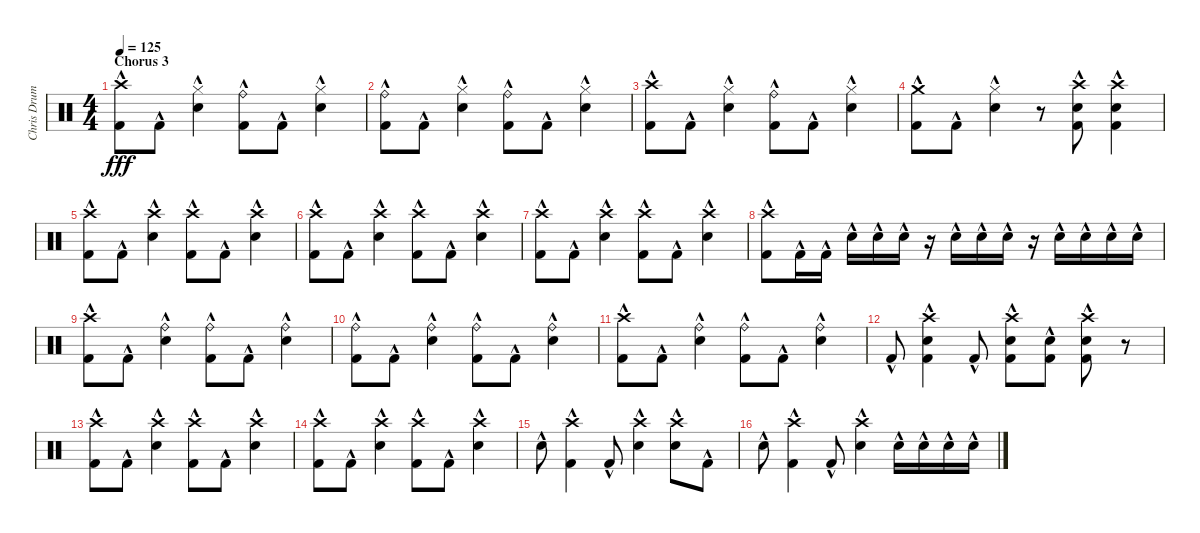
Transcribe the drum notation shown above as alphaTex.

\track ("Chris Drums" "Chris Drum") {instrument percussion}
\staff {score}
\articulation defaults
\ts (4 4)
\section ("" "Chorus 3")
\tempo 125
\clef neutral
\ks c
("Crash high (hit)"{hac} "Kick (hit) 2"{hac}).8{dy fff} "Kick (hit) 2"{hac}.8 ("Hi-Hat (closed)"{hac} "Snare (hit) 2"{hac}).4 ("Ride (bell)"{hac} "Kick (hit) 2"{hac}).8 "Kick (hit) 2"{hac}.8 ("Hi-Hat (closed)"{hac} "Snare (hit) 2"{hac}).4 |
("Ride (bell)"{hac} "Kick (hit) 2"{hac}).8 "Kick (hit) 2"{hac}.8 ("Hi-Hat (closed)"{hac} "Snare (hit) 2"{hac}).4 ("Ride (bell)"{hac} "Kick (hit) 2"{hac}).8 "Kick (hit) 2"{hac}.8 ("Hi-Hat (closed)"{hac} "Snare (hit) 2"{hac}).4 |
("Crash high (hit)"{hac} "Kick (hit) 2"{hac}).8 "Kick (hit) 2"{hac}.8 ("Hi-Hat (closed)"{hac} "Snare (hit) 2"{hac}).4 ("Ride (bell)"{hac} "Kick (hit) 2"{hac}).8 "Kick (hit) 2"{hac}.8 ("Hi-Hat (closed)"{hac} "Snare (hit) 2"{hac}).4 |
("Crash medium (hit)"{hac} "Kick (hit) 2"{hac}).8 "Kick (hit) 2"{hac}.8 ("Hi-Hat (closed)"{hac} "Snare (hit) 2"{hac}).4 r.8 ("Crash high (hit)" "Snare (hit) 2"{hac} "Kick (hit) 2"{hac}).8 ("Crash high (hit)" "Snare (hit) 2"{hac} "Kick (hit) 2"{hac}).4 |
("Crash high (hit)"{hac} "Kick (hit) 2"{hac}).8 "Kick (hit) 2"{hac}.8 ("Crash high (hit)"{hac} "Snare (hit) 2"{hac}).4 ("Crash high (hit)"{hac} "Kick (hit) 2"{hac}).8 "Kick (hit) 2"{hac}.8 ("Crash high (hit)"{hac} "Snare (hit) 2"{hac}).4 |
("Crash high (hit)"{hac} "Kick (hit) 2"{hac}).8 "Kick (hit) 2"{hac}.8 ("Crash high (hit)"{hac} "Snare (hit) 2"{hac}).4 ("Crash high (hit)"{hac} "Kick (hit) 2"{hac}).8 "Kick (hit) 2"{hac}.8 ("Crash high (hit)"{hac} "Snare (hit) 2"{hac}).4 |
("Crash high (hit)"{hac} "Kick (hit) 2"{hac}).8 "Kick (hit) 2"{hac}.8 ("Crash high (hit)"{hac} "Snare (hit) 2"{hac}).4 ("Crash high (hit)"{hac} "Kick (hit) 2"{hac}).8 "Kick (hit) 2"{hac}.8 ("Crash high (hit)"{hac} "Snare (hit) 2"{hac}).4 |
("Crash high (hit)"{hac} "Kick (hit) 2"{hac}).8 "Kick (hit) 2"{hac}.16 "Kick (hit) 2"{hac}.16 "Snare (hit) 2"{hac}.16 "Snare (hit) 2"{hac}.16 "Snare (hit) 2"{hac}.16 r.16 "Snare (hit) 2"{hac}.16 "Snare (hit) 2"{hac}.16 "Snare (hit) 2"{hac}.16 r.16 "Snare (hit) 2"{hac}.16 "Snare (hit) 2"{hac}.16 "Snare (hit) 2"{hac}.16 "Snare (hit) 2"{hac}.16 |
("Crash high (hit)"{hac} "Kick (hit) 2"{hac}).8 "Kick (hit) 2"{hac}.8 ("Ride (bell)"{hac} "Snare (hit) 2"{hac}).4 ("Ride (bell)"{hac} "Kick (hit) 2"{hac}).8 "Kick (hit) 2"{hac}.8 ("Ride (bell)"{hac} "Snare (hit) 2"{hac}).4 |
("Ride (bell)"{hac} "Kick (hit) 2"{hac}).8 "Kick (hit) 2"{hac}.8 ("Ride (bell)"{hac} "Snare (hit) 2"{hac}).4 ("Ride (bell)"{hac} "Kick (hit) 2"{hac}).8 "Kick (hit) 2"{hac}.8 ("Ride (bell)"{hac} "Snare (hit) 2"{hac}).4 |
("Crash high (hit)"{hac} "Kick (hit) 2"{hac}).8 "Kick (hit) 2"{hac}.8 ("Ride (bell)"{hac} "Snare (hit) 2"{hac}).4 ("Ride (bell)"{hac} "Kick (hit) 2"{hac}).8 "Kick (hit) 2"{hac}.8 ("Ride (bell)"{hac} "Snare (hit) 2"{hac}).4 |
"Kick (hit) 2"{hac}.8 ("Crash high (hit)" "Snare (hit) 2" "Kick (hit) 2"{hac}).4 "Kick (hit) 2"{hac}.8 ("Crash high (hit)" "Snare (hit) 2"{hac} "Kick (hit) 2"{hac}).8 ("Snare (hit) 2"{hac} "Kick (hit) 2"{hac}).8 ("Crash high (hit)" "Snare (hit) 2"{hac} "Kick (hit) 2"{hac}).8 r.8 |
("Crash high (hit)"{hac} "Kick (hit) 2"{hac}).8 "Kick (hit) 2"{hac}.8 ("Crash high (hit)"{hac} "Snare (hit) 2"{hac}).4 ("Crash high (hit)"{hac} "Kick (hit) 2"{hac}).8 "Kick (hit) 2"{hac}.8 ("Crash high (hit)"{hac} "Snare (hit) 2"{hac}).4 |
("Crash high (hit)"{hac} "Kick (hit) 2"{hac}).8 "Kick (hit) 2"{hac}.8 ("Crash high (hit)"{hac} "Snare (hit) 2"{hac}).4 ("Crash high (hit)"{hac} "Kick (hit) 2"{hac}).8 "Kick (hit) 2"{hac}.8 ("Crash high (hit)"{hac} "Snare (hit) 2"{hac}).4 |
"Snare (hit) 2"{hac}.8 ("Crash high (hit)"{hac} "Kick (hit) 2"{hac}).4 "Kick (hit) 2"{hac}.8 ("Crash high (hit)"{hac} "Snare (hit) 2"{hac}).4 ("Crash high (hit)"{hac} "Snare (hit) 2"{hac}).8 "Kick (hit) 2"{hac}.8 |
"Snare (hit) 2"{hac}.8 ("Crash high (hit)"{hac} "Kick (hit) 2"{hac}).4 "Kick (hit) 2"{hac}.8 ("Crash high (hit)"{hac} "Snare (hit) 2"{hac}).4 "Snare (hit) 2"{hac}.16 "Snare (hit) 2"{hac}.16 "Snare (hit) 2"{hac}.16 "Snare (hit) 2"{hac}.16
